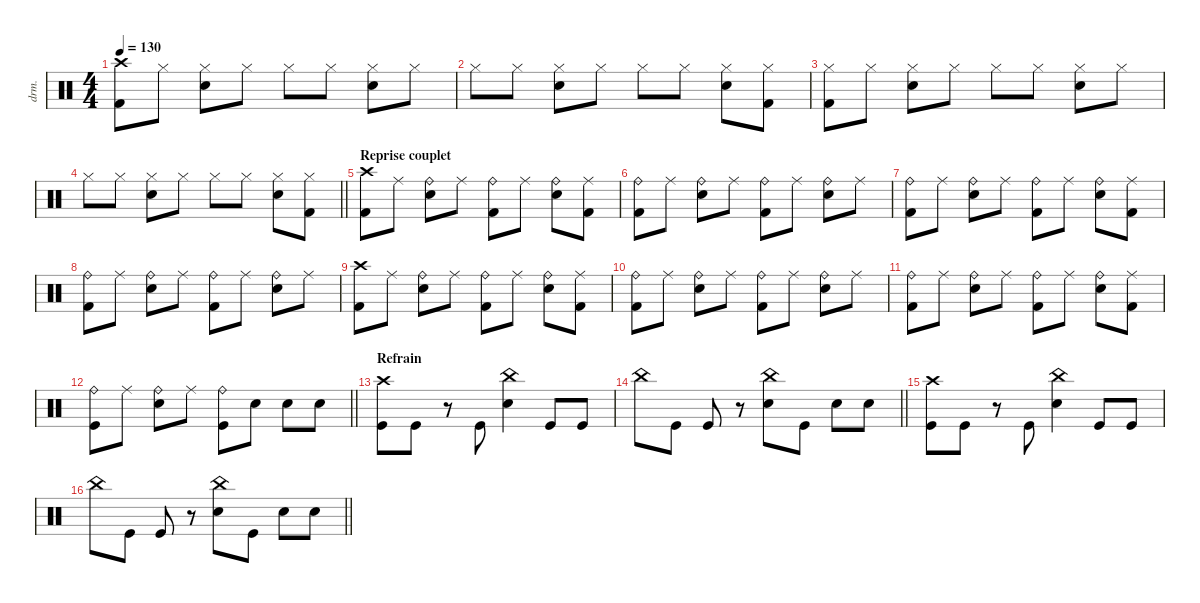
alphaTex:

\defaultSystemsLayout 4
\hideDynamics
\bracketExtendMode nobrackets
\otherSystemsTrackNameOrientation horizontal
\track ("Manouche" "drm.") {instrument percussion}
\staff {score}
\articulation defaults
\ts (4 4)
\tempo 130
\clef neutral
\ks c
("Crash high (hit)" "Kick (hit) 2").8{dy f beam Down} "Hi-Hat (closed)".8{dy mp beam Down} ("Hi-Hat (closed)" "Snare (hit) 2").8{dy f beam Down} "Hi-Hat (closed)".8{dy mp beam Down} "Hi-Hat (closed)".8{dy f beam Down} "Hi-Hat (closed)".8{dy mp beam Down} ("Hi-Hat (closed)" "Snare (hit) 2").8{dy f beam Down} "Hi-Hat (closed)".8{dy mp beam Down} |
"Hi-Hat (closed)".8{dy f beam Down} "Hi-Hat (closed)".8{dy mp beam Down} ("Hi-Hat (closed)" "Snare (hit) 2").8{dy f beam Down} "Hi-Hat (closed)".8{dy mp beam Down} "Hi-Hat (closed)".8{dy f beam Down} "Hi-Hat (closed)".8{dy mp beam Down} ("Hi-Hat (closed)" "Snare (hit) 2").8{dy f beam Down} ("Hi-Hat (closed)" "Kick (hit) 2").8{dy mp beam Down} |
("Hi-Hat (closed)" "Kick (hit) 2").8{beam Down} "Hi-Hat (closed)".8{beam Down} ("Hi-Hat (closed)" "Snare (hit) 2").8{dy f beam Down} "Hi-Hat (closed)".8{dy mp beam Down} "Hi-Hat (closed)".8{dy f beam Down} "Hi-Hat (closed)".8{dy mp beam Down} ("Hi-Hat (closed)" "Snare (hit) 2").8{dy f beam Down} "Hi-Hat (closed)".8{dy mp beam Down} |
\barLineRight lightlight "Hi-Hat (closed)".8{dy f beam Down} "Hi-Hat (closed)".8{dy mp beam Down}
("Hi-Hat (closed)" "Snare (hit) 2").8{dy f beam Down} "Hi-Hat (closed)".8{dy mp beam Down} "Hi-Hat (closed)".8{dy f beam Down} "Hi-Hat (closed)".8{dy mp beam Down} ("Hi-Hat (closed)" "Snare (hit) 2").8{dy f beam Down} ("Hi-Hat (closed)" "Kick (hit) 2").8{dy mp beam Down} |
\section ("" "Reprise couplet")
("Crash high (hit)" "Kick (hit) 2").8{dy f beam Down} "Ride (middle)".8{dy mf beam Down} ("Ride (bell)" "Snare (hit) 2").8{dy f beam Down} "Ride (middle)".8{dy mf beam Down} ("Ride (bell)" "Kick (hit) 2").8{dy f beam Down} "Ride (middle)".8{dy mf beam Down} ("Ride (bell)" "Snare (hit) 2").8{dy f beam Down} ("Ride (middle)" "Kick (hit) 2").8{dy mf beam Down} |
("Ride (bell)" "Kick (hit) 2").8{dy f beam Down} "Ride (middle)".8{dy mf beam Down} ("Ride (bell)" "Snare (hit) 2").8{dy f beam Down} "Ride (middle)".8{dy mf beam Down} ("Ride (bell)" "Kick (hit) 2").8{dy f beam Down} "Ride (middle)".8{dy mf beam Down} ("Ride (bell)" "Snare (hit) 2").8{dy f beam Down} "Ride (middle)".8{dy mf beam Down} |
("Ride (bell)" "Kick (hit) 2").8{dy f beam Down} "Ride (middle)".8{dy mf beam Down} ("Ride (bell)" "Snare (hit) 2").8{dy f beam Down} "Ride (middle)".8{dy mf beam Down} ("Ride (bell)" "Kick (hit) 2").8{dy f beam Down} "Ride (middle)".8{dy mf beam Down} ("Ride (bell)" "Snare (hit) 2").8{dy f beam Down} ("Ride (middle)" "Kick (hit) 2").8{dy mf beam Down} |
("Ride (bell)" "Kick (hit) 2").8{dy f beam Down} "Ride (middle)".8{dy mf beam Down} ("Ride (bell)" "Snare (hit) 2").8{dy f beam Down} "Ride (middle)".8{dy mf beam Down} ("Ride (bell)" "Kick (hit) 2").8{dy f beam Down} "Ride (middle)".8{dy mf beam Down} ("Ride (bell)" "Snare (hit) 2").8{dy f beam Down} "Ride (middle)".8{dy mf beam Down} |
("Crash high (hit)" "Kick (hit) 2").8{dy f beam Down} "Ride (middle)".8{dy mf beam Down} ("Ride (bell)" "Snare (hit) 2").8{dy f beam Down} "Ride (middle)".8{dy mf beam Down} ("Ride (bell)" "Kick (hit) 2").8{dy f beam Down} "Ride (middle)".8{dy mf beam Down} ("Ride (bell)" "Snare (hit) 2").8{dy f beam Down} ("Ride (middle)" "Kick (hit) 2").8{dy mf beam Down} |
("Ride (bell)" "Kick (hit) 2").8{dy f beam Down} "Ride (middle)".8{dy mf beam Down} ("Ride (bell)" "Snare (hit) 2").8{dy f beam Down} "Ride (middle)".8{dy mf beam Down} ("Ride (bell)" "Kick (hit) 2").8{dy f beam Down} "Ride (middle)".8{dy mf beam Down} ("Ride (bell)" "Snare (hit) 2").8{dy f beam Down} "Ride (middle)".8{dy mf beam Down} |
("Ride (bell)" "Kick (hit) 2").8{dy f beam Down} "Ride (middle)".8{dy mf beam Down} ("Ride (bell)" "Snare (hit) 2").8{dy f beam Down} "Ride (middle)".8{dy mf beam Down} ("Ride (bell)" "Kick (hit) 2").8{dy f beam Down} "Ride (middle)".8{dy mf beam Down} ("Ride (bell)" "Snare (hit) 2").8{dy f beam Down} ("Ride (middle)" "Kick (hit) 2").8{dy mf beam Down} |
\barLineRight lightlight
("Ride (bell)" "Kick (hit)").8{dy f beam Down} "Ride (middle)".8{dy mf beam Down} ("Ride (bell)" "Snare (hit) 2").8{dy f beam Down} "Ride (middle)".8{dy mf beam Down} ("Ride (bell)" "Kick (hit)").8{dy f beam Down} "Snare (hit) 2".8{beam Down} "Snare (hit) 2".8{beam Down} "Snare (hit) 2".8{beam Down} |
\section ("" "Refrain")
("Crash high (hit)" "Kick (hit)").8{beam Down} "Kick (hit)".8{beam Down} r.8{beam Down} "Kick (hit)".8{beam Up} ("China (hit)" "Snare (hit) 2").4{beam Down} "Kick (hit)".8{beam Up} "Kick (hit)".8{beam Up} |
\barLineRight lightlight "China (hit)".8{beam Down} "Kick (hit)".8{beam Down} "Kick (hit)".8{beam Up}
r.8{beam Up} ("China (hit)" "Snare (hit) 2").8{beam Down} "Kick (hit)".8{beam Down} "Snare (hit) 2".8{beam Down} "Snare (hit) 2".8{beam Down} |
("Crash high (hit)" "Kick (hit)").8{beam Down} "Kick (hit)".8{beam Down} r.8{beam Down} "Kick (hit)".8{beam Up} ("China (hit)" "Snare (hit) 2").4{beam Down} "Kick (hit)".8{beam Up} "Kick (hit)".8{beam Up} |
\barLineRight lightlight "China (hit)".8{beam Down} "Kick (hit)".8{beam Down} "Kick (hit)".8{beam Up}
r.8{beam Up} ("China (hit)" "Snare (hit) 2").8{beam Down} "Kick (hit)".8{beam Down} "Snare (hit) 2".8{beam Down} "Snare (hit) 2".8{beam Down}
